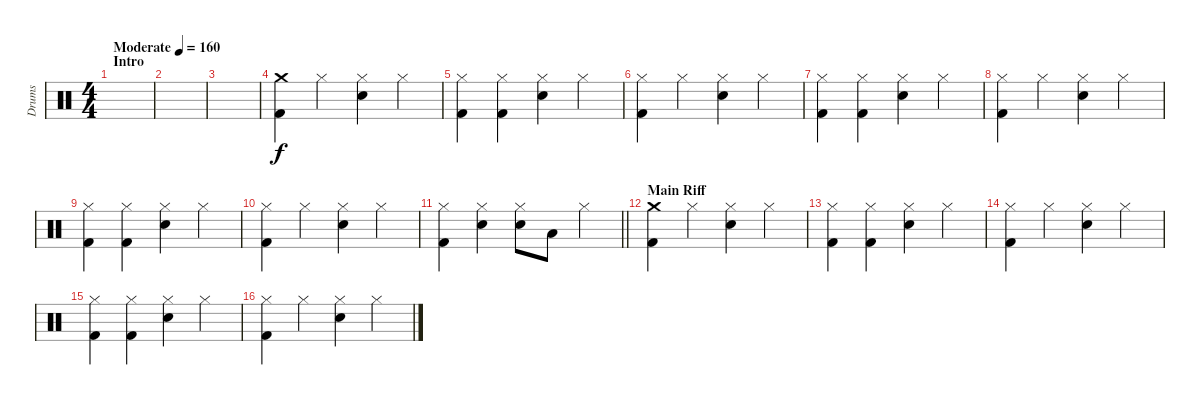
\track ("Drums" "Drums") {instrument percussion}
\staff {score}
\articulation defaults
\ts (4 4)
\section ("" "Intro")
\tempo (160 "Moderate")
\clef neutral
\ks c
|
|
|
("Crash medium (hit)" "Kick (hit) 2").4 "Hi-Hat (closed)".4 ("Hi-Hat (closed)" "Snare (hit) 2").4 "Hi-Hat (closed)".4 |
("Hi-Hat (closed)" "Kick (hit) 2").4 ("Hi-Hat (closed)" "Kick (hit) 2").4 ("Hi-Hat (closed)" "Snare (hit) 2").4 "Hi-Hat (closed)".4 |
("Hi-Hat (closed)" "Kick (hit) 2").4 "Hi-Hat (closed)".4 ("Hi-Hat (closed)" "Snare (hit) 2").4 "Hi-Hat (closed)".4 |
("Hi-Hat (closed)" "Kick (hit) 2").4 ("Hi-Hat (closed)" "Kick (hit) 2").4 ("Hi-Hat (closed)" "Snare (hit) 2").4 "Hi-Hat (closed)".4 |
("Hi-Hat (closed)" "Kick (hit) 2").4 "Hi-Hat (closed)".4 ("Hi-Hat (closed)" "Snare (hit) 2").4 "Hi-Hat (closed)".4 |
("Hi-Hat (closed)" "Kick (hit) 2").4 ("Hi-Hat (closed)" "Kick (hit) 2").4 ("Hi-Hat (closed)" "Snare (hit) 2").4 "Hi-Hat (closed)".4 |
("Hi-Hat (closed)" "Kick (hit) 2").4 "Hi-Hat (closed)".4 ("Hi-Hat (closed)" "Snare (hit) 2").4 "Hi-Hat (closed)".4 |
\barLineRight lightlight
("Hi-Hat (closed)" "Kick (hit) 2").4 ("Hi-Hat (closed)" "Snare (hit) 2").4 ("Hi-Hat (closed)" "Snare (hit) 2").8 "Low Tom (hit)".8 "Hi-Hat (closed)".4 |
\section ("" "Main Riff")
("Crash medium (hit)" "Kick (hit) 2").4 "Hi-Hat (closed)".4 ("Hi-Hat (closed)" "Snare (hit) 2").4 "Hi-Hat (closed)".4 |
("Hi-Hat (closed)" "Kick (hit) 2").4 ("Hi-Hat (closed)" "Kick (hit) 2").4 ("Hi-Hat (closed)" "Snare (hit) 2").4 "Hi-Hat (closed)".4 |
("Hi-Hat (closed)" "Kick (hit) 2").4 "Hi-Hat (closed)".4 ("Hi-Hat (closed)" "Snare (hit) 2").4 "Hi-Hat (closed)".4 |
("Hi-Hat (closed)" "Kick (hit) 2").4 ("Hi-Hat (closed)" "Kick (hit) 2").4 ("Hi-Hat (closed)" "Snare (hit) 2").4 "Hi-Hat (closed)".4 |
("Hi-Hat (closed)" "Kick (hit) 2").4 "Hi-Hat (closed)".4 ("Hi-Hat (closed)" "Snare (hit) 2").4 "Hi-Hat (closed)".4
